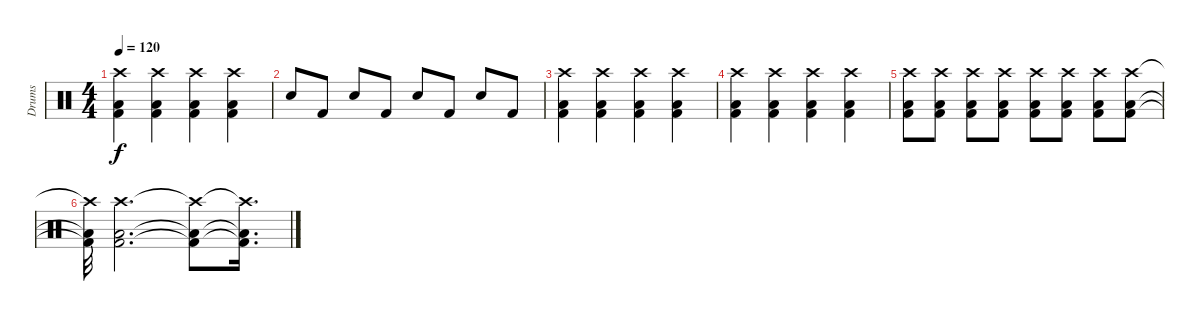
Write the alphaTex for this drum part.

\track ("Drums" "Drums") {instrument percussion}
\staff {score}
\articulation defaults
\ts (4 4)
\tempo 120
\clef neutral
\ks c
("Crash high (hit)" "Kick (hit) 2" "Low Tom (hit)").4{dy f} ("Crash high (hit)" "Kick (hit) 2" "Low Tom (hit)").4 ("Crash high (hit)" "Kick (hit) 2" "Low Tom (hit)").4 ("Crash high (hit)" "Kick (hit) 2" "Low Tom (hit)").4 |
"Snare (hit) 2".8 "Kick (hit) 2".8 "Snare (hit) 2".8 "Kick (hit) 2".8 "Snare (hit) 2".8 "Kick (hit) 2".8 "Snare (hit) 2".8 "Kick (hit) 2".8 |
("Crash high (hit)" "Kick (hit) 2" "Low Tom (hit)").4 ("Crash high (hit)" "Kick (hit) 2" "Low Tom (hit)").4 ("Crash high (hit)" "Kick (hit) 2" "Low Tom (hit)").4 ("Crash high (hit)" "Kick (hit) 2" "Low Tom (hit)").4 |
("Crash high (hit)" "Kick (hit) 2" "Low Tom (hit)").4 ("Crash high (hit)" "Kick (hit) 2" "Low Tom (hit)").4 ("Crash high (hit)" "Kick (hit) 2" "Low Tom (hit)").4 ("Crash high (hit)" "Kick (hit) 2" "Low Tom (hit)").4 |
("Crash high (hit)" "Kick (hit) 2" "Low Tom (hit)").8 ("Crash high (hit)" "Kick (hit) 2" "Low Tom (hit)").8 ("Crash high (hit)" "Kick (hit) 2" "Low Tom (hit)").8 ("Crash high (hit)" "Kick (hit) 2" "Low Tom (hit)").8 ("Crash high (hit)" "Kick (hit) 2" "Low Tom (hit)").8 ("Crash high (hit)" "Kick (hit) 2" "Low Tom (hit)").8 ("Crash high (hit)" "Kick (hit) 2" "Low Tom (hit)").8 ("Crash high (hit)" "Kick (hit) 2" "Low Tom (hit)").8 |
("Crash high (hit)"{t} "Kick (hit) 2"{t} "Low Tom (hit)"{t}).32 ("Crash high (hit)" "Kick (hit) 2" "Low Tom (hit)").2{d} ("Crash high (hit)"{t} "Kick (hit) 2"{t} "Low Tom (hit)"{t}).8 ("Crash high (hit)"{t} "Kick (hit) 2"{t} "Low Tom (hit)"{t}).16{d}
